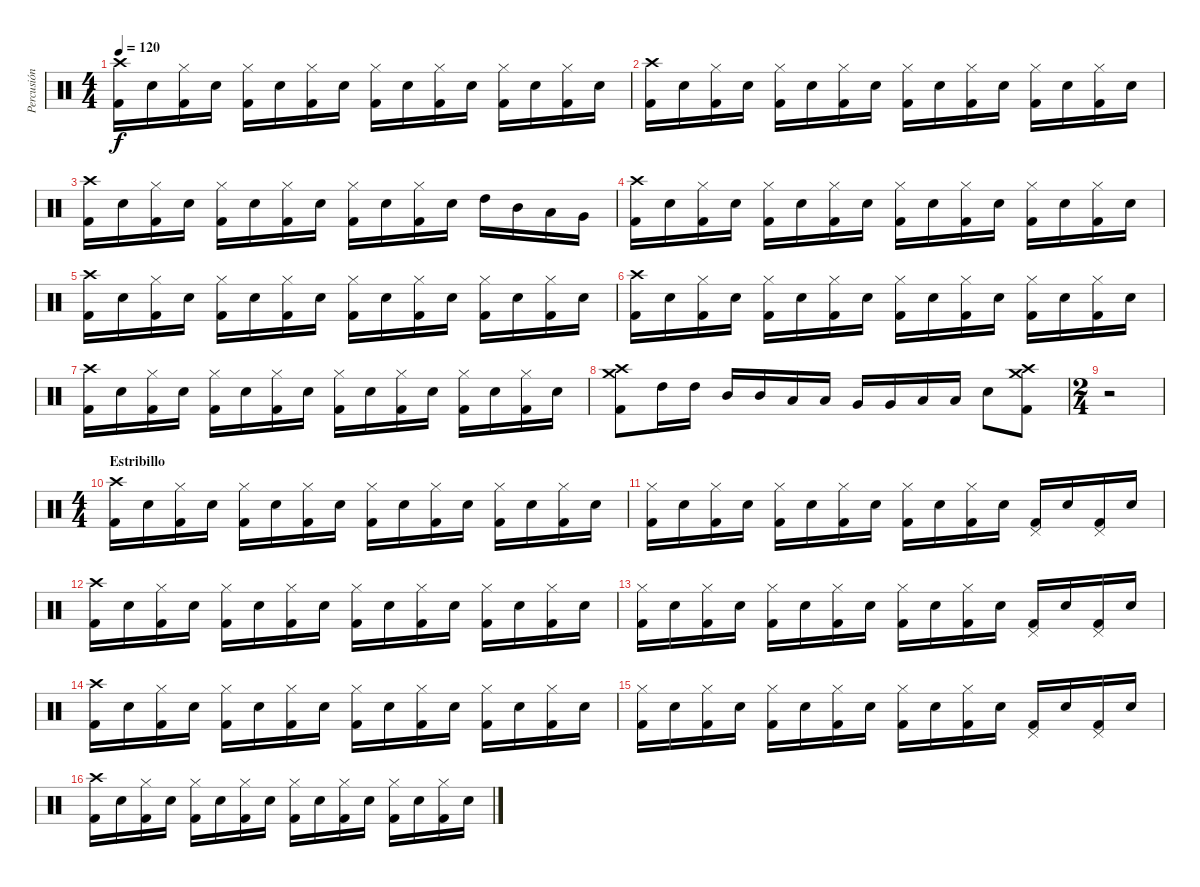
\track ("Percusión" "Percusión") {instrument percussion}
\staff {score}
\articulation defaults
\ts (4 4)
\tempo 120
\clef neutral
\ks c
("Crash high (hit)" "Kick (hit) 2").16{dy f} "Snare (hit) 2".16 ("Hi-Hat (closed)" "Kick (hit) 2").16 "Snare (hit) 2".16 ("Hi-Hat (closed)" "Kick (hit) 2").16 "Snare (hit) 2".16 ("Hi-Hat (closed)" "Kick (hit) 2").16 "Snare (hit) 2".16 ("Hi-Hat (closed)" "Kick (hit) 2").16 "Snare (hit) 2".16 ("Hi-Hat (closed)" "Kick (hit) 2").16 "Snare (hit) 2".16 ("Hi-Hat (closed)" "Kick (hit) 2").16 "Snare (hit) 2".16 ("Hi-Hat (closed)" "Kick (hit) 2").16 "Snare (hit) 2".16 |
("Crash high (hit)" "Kick (hit) 2").16 "Snare (hit) 2".16 ("Hi-Hat (closed)" "Kick (hit) 2").16 "Snare (hit) 2".16 ("Hi-Hat (closed)" "Kick (hit) 2").16 "Snare (hit) 2".16 ("Hi-Hat (closed)" "Kick (hit) 2").16 "Snare (hit) 2".16 ("Hi-Hat (closed)" "Kick (hit) 2").16 "Snare (hit) 2".16 ("Hi-Hat (closed)" "Kick (hit) 2").16 "Snare (hit) 2".16 ("Hi-Hat (closed)" "Kick (hit) 2").16 "Snare (hit) 2".16 ("Hi-Hat (closed)" "Kick (hit) 2").16 "Snare (hit) 2".16 |
("Crash high (hit)" "Kick (hit) 2").16 "Snare (hit) 2".16 ("Hi-Hat (closed)" "Kick (hit) 2").16 "Snare (hit) 2".16 ("Hi-Hat (closed)" "Kick (hit) 2").16 "Snare (hit) 2".16 ("Hi-Hat (closed)" "Kick (hit) 2").16 "Snare (hit) 2".16 ("Hi-Hat (closed)" "Kick (hit) 2").16 "Snare (hit) 2".16 ("Hi-Hat (closed)" "Kick (hit) 2").16 "Snare (hit) 2".16 "High Tom (hit)".16 "Mid Tom (hit)".16 "Low Tom (hit)".16 "Very Low Tom (hit)".16 |
("Crash high (hit)" "Kick (hit) 2").16 "Snare (hit) 2".16 ("Hi-Hat (closed)" "Kick (hit) 2").16 "Snare (hit) 2".16 ("Hi-Hat (closed)" "Kick (hit) 2").16 "Snare (hit) 2".16 ("Hi-Hat (closed)" "Kick (hit) 2").16 "Snare (hit) 2".16 ("Hi-Hat (closed)" "Kick (hit) 2").16 "Snare (hit) 2".16 ("Hi-Hat (closed)" "Kick (hit) 2").16 "Snare (hit) 2".16 ("Hi-Hat (closed)" "Kick (hit) 2").16 "Snare (hit) 2".16 ("Hi-Hat (closed)" "Kick (hit) 2").16 "Snare (hit) 2".16 |
("Crash high (hit)" "Kick (hit) 2").16 "Snare (hit) 2".16 ("Hi-Hat (closed)" "Kick (hit) 2").16 "Snare (hit) 2".16 ("Hi-Hat (closed)" "Kick (hit) 2").16 "Snare (hit) 2".16 ("Hi-Hat (closed)" "Kick (hit) 2").16 "Snare (hit) 2".16 ("Hi-Hat (closed)" "Kick (hit) 2").16 "Snare (hit) 2".16 ("Hi-Hat (closed)" "Kick (hit) 2").16 "Snare (hit) 2".16 ("Hi-Hat (closed)" "Kick (hit) 2").16 "Snare (hit) 2".16 ("Hi-Hat (closed)" "Kick (hit) 2").16 "Snare (hit) 2".16 |
("Crash high (hit)" "Kick (hit) 2").16 "Snare (hit) 2".16 ("Hi-Hat (closed)" "Kick (hit) 2").16 "Snare (hit) 2".16 ("Hi-Hat (closed)" "Kick (hit) 2").16 "Snare (hit) 2".16 ("Hi-Hat (closed)" "Kick (hit) 2").16 "Snare (hit) 2".16 ("Hi-Hat (closed)" "Kick (hit) 2").16 "Snare (hit) 2".16 ("Hi-Hat (closed)" "Kick (hit) 2").16 "Snare (hit) 2".16 ("Hi-Hat (closed)" "Kick (hit) 2").16 "Snare (hit) 2".16 ("Hi-Hat (closed)" "Kick (hit) 2").16 "Snare (hit) 2".16 |
("Crash high (hit)" "Kick (hit) 2").16 "Snare (hit) 2".16 ("Hi-Hat (closed)" "Kick (hit) 2").16 "Snare (hit) 2".16 ("Hi-Hat (closed)" "Kick (hit) 2").16 "Snare (hit) 2".16 ("Hi-Hat (closed)" "Kick (hit) 2").16 "Snare (hit) 2".16 ("Hi-Hat (closed)" "Kick (hit) 2").16 "Snare (hit) 2".16 ("Hi-Hat (closed)" "Kick (hit) 2").16 "Snare (hit) 2".16 ("Hi-Hat (closed)" "Kick (hit) 2").16 "Snare (hit) 2".16 ("Hi-Hat (closed)" "Kick (hit) 2").16 "Snare (hit) 2".16 |
("Crash medium (hit)" "Crash high (hit)" "Kick (hit) 2").8 "High Tom (hit)".16 "High Tom (hit)".16 "Mid Tom (hit)".16 "Mid Tom (hit)".16 "Low Tom (hit)".16 "Low Tom (hit)".16 "Very Low Tom (hit)".16 "Very Low Tom (hit)".16 "Low Floor Tom (hit)".16 "Low Floor Tom (hit)".16 "Snare (hit) 2".8 ("Crash high (hit)" "Crash medium (hit)" "Kick (hit) 2").8 |
\ts (2 4)
r.2 |
\ts (4 4)
\section ("" "Estribillo")
("Crash high (hit)" "Kick (hit) 2").16 "Snare (hit) 2".16 ("Hi-Hat (closed)" "Kick (hit) 2").16 "Snare (hit) 2".16 ("Hi-Hat (closed)" "Kick (hit) 2").16 "Snare (hit) 2".16 ("Hi-Hat (closed)" "Kick (hit) 2").16 "Snare (hit) 2".16 ("Hi-Hat (closed)" "Kick (hit) 2").16 "Snare (hit) 2".16 ("Hi-Hat (closed)" "Kick (hit) 2").16 "Snare (hit) 2".16 ("Hi-Hat (closed)" "Kick (hit) 2").16 "Snare (hit) 2".16 ("Hi-Hat (closed)" "Kick (hit) 2").16 "Snare (hit) 2".16 |
("Hi-Hat (closed)" "Kick (hit) 2").16 "Snare (hit) 2".16 ("Hi-Hat (closed)" "Kick (hit) 2").16 "Snare (hit) 2".16 ("Hi-Hat (closed)" "Kick (hit) 2").16 "Snare (hit) 2".16 ("Hi-Hat (closed)" "Kick (hit) 2").16 "Snare (hit) 2".16 ("Hi-Hat (closed)" "Kick (hit) 2").16 "Snare (hit) 2".16 ("Hi-Hat (closed)" "Kick (hit) 2").16 "Snare (hit) 2".16 ("Pedal Hi-Hat (hit)" "Kick (hit) 2").16 "Snare (hit) 2".16 ("Pedal Hi-Hat (hit)" "Kick (hit) 2").16 "Snare (hit) 2".16 |
("Crash high (hit)" "Kick (hit) 2").16 "Snare (hit) 2".16 ("Hi-Hat (closed)" "Kick (hit) 2").16 "Snare (hit) 2".16 ("Hi-Hat (closed)" "Kick (hit) 2").16 "Snare (hit) 2".16 ("Hi-Hat (closed)" "Kick (hit) 2").16 "Snare (hit) 2".16 ("Hi-Hat (closed)" "Kick (hit) 2").16 "Snare (hit) 2".16 ("Hi-Hat (closed)" "Kick (hit) 2").16 "Snare (hit) 2".16 ("Hi-Hat (closed)" "Kick (hit) 2").16 "Snare (hit) 2".16 ("Hi-Hat (closed)" "Kick (hit) 2").16 "Snare (hit) 2".16 |
("Hi-Hat (closed)" "Kick (hit) 2").16 "Snare (hit) 2".16 ("Hi-Hat (closed)" "Kick (hit) 2").16 "Snare (hit) 2".16 ("Hi-Hat (closed)" "Kick (hit) 2").16 "Snare (hit) 2".16 ("Hi-Hat (closed)" "Kick (hit) 2").16 "Snare (hit) 2".16 ("Hi-Hat (closed)" "Kick (hit) 2").16 "Snare (hit) 2".16 ("Hi-Hat (closed)" "Kick (hit) 2").16 "Snare (hit) 2".16 ("Pedal Hi-Hat (hit)" "Kick (hit) 2").16 "Snare (hit) 2".16 ("Pedal Hi-Hat (hit)" "Kick (hit) 2").16 "Snare (hit) 2".16 |
("Crash high (hit)" "Kick (hit) 2").16 "Snare (hit) 2".16 ("Hi-Hat (closed)" "Kick (hit) 2").16 "Snare (hit) 2".16 ("Hi-Hat (closed)" "Kick (hit) 2").16 "Snare (hit) 2".16 ("Hi-Hat (closed)" "Kick (hit) 2").16 "Snare (hit) 2".16 ("Hi-Hat (closed)" "Kick (hit) 2").16 "Snare (hit) 2".16 ("Hi-Hat (closed)" "Kick (hit) 2").16 "Snare (hit) 2".16 ("Hi-Hat (closed)" "Kick (hit) 2").16 "Snare (hit) 2".16 ("Hi-Hat (closed)" "Kick (hit) 2").16 "Snare (hit) 2".16 |
("Hi-Hat (closed)" "Kick (hit) 2").16 "Snare (hit) 2".16 ("Hi-Hat (closed)" "Kick (hit) 2").16 "Snare (hit) 2".16 ("Hi-Hat (closed)" "Kick (hit) 2").16 "Snare (hit) 2".16 ("Hi-Hat (closed)" "Kick (hit) 2").16 "Snare (hit) 2".16 ("Hi-Hat (closed)" "Kick (hit) 2").16 "Snare (hit) 2".16 ("Hi-Hat (closed)" "Kick (hit) 2").16 "Snare (hit) 2".16 ("Pedal Hi-Hat (hit)" "Kick (hit) 2").16 "Snare (hit) 2".16 ("Pedal Hi-Hat (hit)" "Kick (hit) 2").16 "Snare (hit) 2".16 |
("Crash high (hit)" "Kick (hit) 2").16 "Snare (hit) 2".16 ("Hi-Hat (closed)" "Kick (hit) 2").16 "Snare (hit) 2".16 ("Hi-Hat (closed)" "Kick (hit) 2").16 "Snare (hit) 2".16 ("Hi-Hat (closed)" "Kick (hit) 2").16 "Snare (hit) 2".16 ("Hi-Hat (closed)" "Kick (hit) 2").16 "Snare (hit) 2".16 ("Hi-Hat (closed)" "Kick (hit) 2").16 "Snare (hit) 2".16 ("Hi-Hat (closed)" "Kick (hit) 2").16 "Snare (hit) 2".16 ("Hi-Hat (closed)" "Kick (hit) 2").16 "Snare (hit) 2".16
